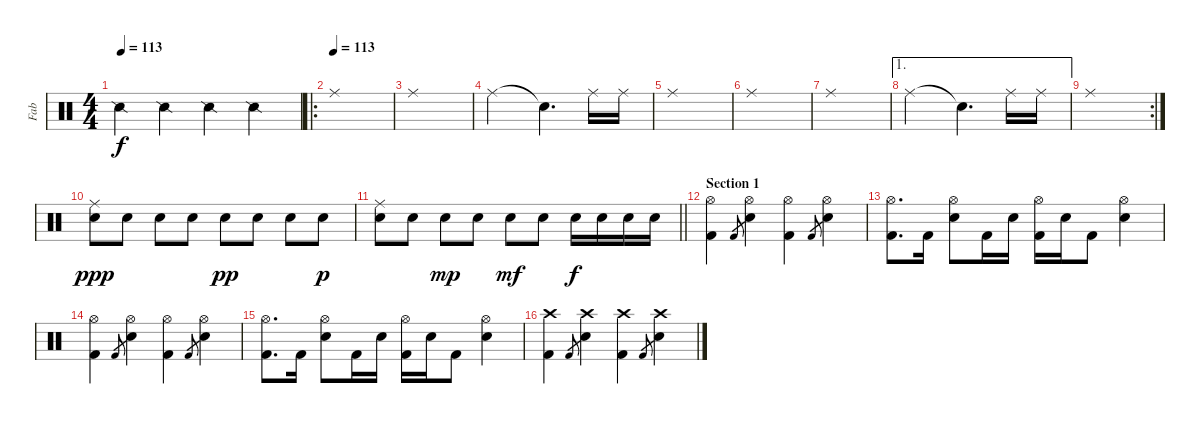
\track ("Fab" "Fab") {instrument percussion}
\staff {score}
\articulation defaults
\ts (4 4)
\tempo 113
\clef neutral
\ks c "Snare (side stick) 2".4{dy f} "Snare (side stick) 2".4 "Snare (side stick) 2".4 "Snare (side stick) 2".4
|
\ro
\tempo (113)
"Ride (middle)".1 |
"Ride (middle)".1 |
"Ride (middle)".2 "Snare (hit)"{t}.4{d} "Ride (middle)".16 "Ride (middle)".16 |
"Ride (middle)".1 |
"Ride (middle)".1 |
"Ride (middle)".1 |
\ae 1 "Ride (middle)".2 "Snare (hit)"{t}.4{d} "Ride (middle)".16 "Ride (middle)".16
|
\rc 2 "Ride (middle)".1
|
("Ride (middle)" "Electric Snare (hit)").8{dy ppp} "Electric Snare (hit)".8 "Electric Snare (hit)".8 "Electric Snare (hit)".8 "Electric Snare (hit)".8{dy pp} "Electric Snare (hit)".8 "Electric Snare (hit)".8 "Electric Snare (hit)".8{dy p} |
\barLineRight lightlight
("Ride (middle)" "Electric Snare (hit)").8 "Electric Snare (hit)".8 "Electric Snare (hit)".8{dy mp} "Electric Snare (hit)".8 "Electric Snare (hit)".8{dy mf} "Electric Snare (hit)".8 "Electric Snare (hit)".16{dy f} "Electric Snare (hit)".16 "Electric Snare (hit)".16 "Electric Snare (hit)".16 |
\section ("" "Section 1")
("Hi-Hat (open)" "Kick (hit) 2").4 "Kick (hit) 2".8{gr} ("Hi-Hat (open)" "Electric Snare (hit)").4 ("Hi-Hat (open)" "Kick (hit) 2").4 "Kick (hit) 2".8{gr} ("Hi-Hat (open)" "Electric Snare (hit)").4 |
("Hi-Hat (open)" "Kick (hit) 2").8{d} "Kick (hit) 2".16 ("Hi-Hat (open)" "Electric Snare (hit)").8 "Kick (hit) 2".16 "Electric Snare (hit)".16 ("Hi-Hat (open)" "Kick (hit) 2").16 "Electric Snare (hit)".16 "Kick (hit) 2".8 ("Hi-Hat (open)" "Electric Snare (hit)").4 |
("Hi-Hat (open)" "Kick (hit) 2").4 "Kick (hit) 2".8{gr} ("Hi-Hat (open)" "Electric Snare (hit)").4 ("Hi-Hat (open)" "Kick (hit) 2").4 "Kick (hit) 2".8{gr} ("Hi-Hat (open)" "Electric Snare (hit)").4 |
("Hi-Hat (open)" "Kick (hit) 2").8{d} "Kick (hit) 2".16 ("Hi-Hat (open)" "Electric Snare (hit)").8 "Kick (hit) 2".16 "Electric Snare (hit)".16 ("Hi-Hat (open)" "Kick (hit) 2").16 "Electric Snare (hit)".16 "Kick (hit) 2".8 ("Hi-Hat (open)" "Electric Snare (hit)").4 |
("Crash high (hit)" "Kick (hit) 2").4 "Kick (hit) 2".8{gr} ("Crash high (hit)" "Electric Snare (hit)").4 ("Crash high (hit)" "Kick (hit) 2").4 "Kick (hit) 2".8{gr} ("Crash high (hit)" "Electric Snare (hit)").4
